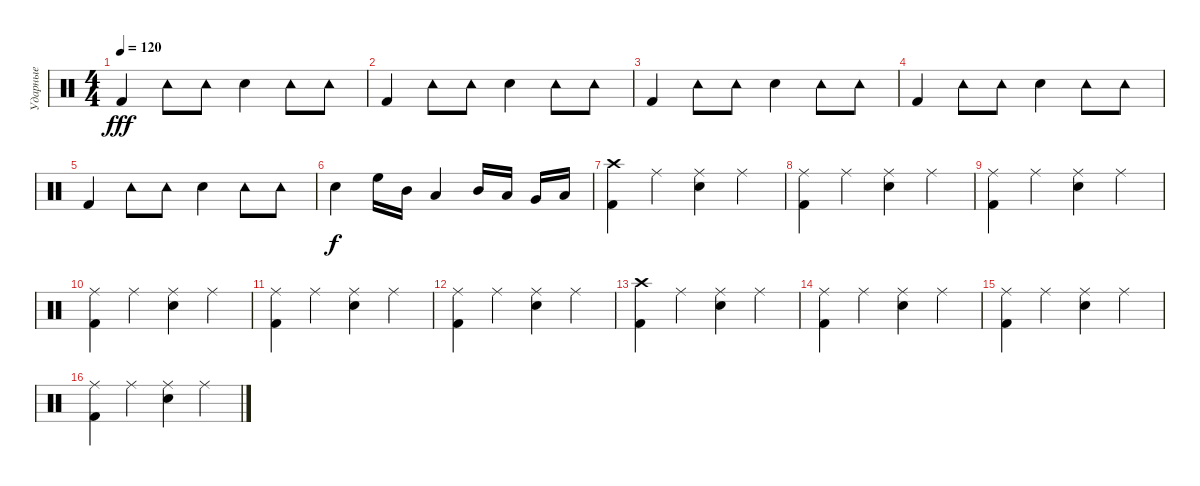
\track ("Ударные" "Ударные") {instrument percussion}
\staff {score}
\articulation defaults
\ts (4 4)
\tempo 120
\clef neutral
\ks c "Kick (hit) 2".4{dy fff} "Tambourine (hit)".8 "Tambourine (hit)".8 "Snare (hit) 2".4 "Tambourine (hit)".8 "Tambourine (hit)".8
|
"Kick (hit) 2".4 "Tambourine (hit)".8 "Tambourine (hit)".8 "Snare (hit) 2".4 "Tambourine (hit)".8 "Tambourine (hit)".8 |
"Kick (hit) 2".4 "Tambourine (hit)".8 "Tambourine (hit)".8 "Snare (hit) 2".4 "Tambourine (hit)".8 "Tambourine (hit)".8 |
"Kick (hit) 2".4 "Tambourine (hit)".8 "Tambourine (hit)".8 "Snare (hit) 2".4 "Tambourine (hit)".8 "Tambourine (hit)".8 |
"Kick (hit) 2".4 "Tambourine (hit)".8 "Tambourine (hit)".8 "Snare (hit) 2".4 "Tambourine (hit)".8 "Tambourine (hit)".8 |
"Snare (hit) 2".4{dy f} "High Floor Tom (hit)".16 "Mid Tom (hit)".16 "Low Tom (hit)".4 "Mid Tom (hit)".16 "Low Tom (hit)".16 "Very Low Tom (hit)".16 "Low Floor Tom (hit)".16 |
("Crash high (hit)" "Kick (hit) 2").4 "Ride (middle)".4 ("Snare (hit) 2" "Ride (middle)").4 "Ride (middle)".4 |
("Kick (hit) 2" "Ride (middle)").4 "Ride (middle)".4 ("Snare (hit) 2" "Ride (middle)").4 "Ride (middle)".4 |
("Kick (hit) 2" "Ride (middle)").4 "Ride (middle)".4 ("Snare (hit) 2" "Ride (middle)").4 "Ride (middle)".4 |
("Kick (hit) 2" "Ride (middle)").4 "Ride (middle)".4 ("Snare (hit) 2" "Ride (middle)").4 "Ride (middle)".4 |
("Kick (hit) 2" "Ride (middle)").4 "Ride (middle)".4 ("Snare (hit) 2" "Ride (middle)").4 "Ride (middle)".4 |
("Kick (hit) 2" "Ride (middle)").4 "Ride (middle)".4 ("Snare (hit) 2" "Ride (middle)").4 "Ride (middle)".4 |
("Crash high (hit)" "Kick (hit) 2").4 "Ride (middle)".4 ("Snare (hit) 2" "Ride (middle)").4 "Ride (middle)".4 |
("Kick (hit) 2" "Ride (middle)").4 "Ride (middle)".4 ("Snare (hit) 2" "Ride (middle)").4 "Ride (middle)".4 |
("Kick (hit) 2" "Ride (middle)").4 "Ride (middle)".4 ("Snare (hit) 2" "Ride (middle)").4 "Ride (middle)".4 |
("Kick (hit) 2" "Ride (middle)").4 "Ride (middle)".4 ("Snare (hit) 2" "Ride (middle)").4 "Ride (middle)".4
